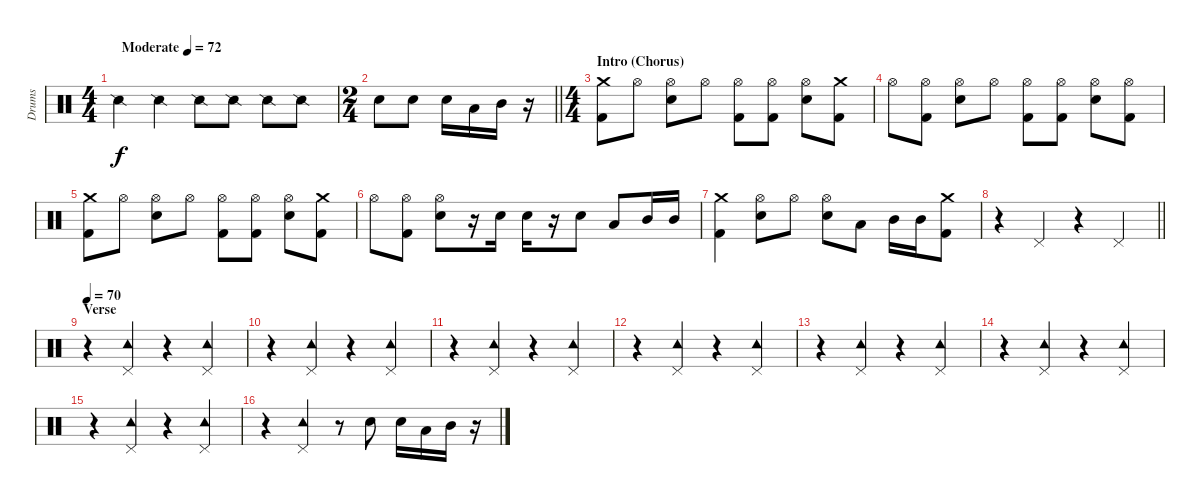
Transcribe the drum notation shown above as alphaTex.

\track ("Drums" "Drums") {instrument percussion}
\staff {score}
\articulation defaults
\ts (4 4)
\tempo (72 "Moderate")
\clef neutral
\ks c "Snare (side stick) 2".4{dy f} "Snare (side stick) 2".4 "Snare (side stick) 2".8 "Snare (side stick) 2".8 "Snare (side stick) 2".8 "Snare (side stick) 2".8
|
\ts (2 4)
\barLineRight lightlight "Snare (hit) 2".8 "Snare (hit) 2".8 "Snare (hit) 2".16 "Low Tom (hit)".16 "Mid Tom (hit)".16
r.16 |
\ts (4 4)
\section ("" "Intro (Chorus)")
("Crash medium (hit)" "Kick (hit) 2").8 "Hi-Hat (open)".8 ("Hi-Hat (open)" "Snare (hit) 2").8 "Hi-Hat (open)".8 ("Hi-Hat (open)" "Kick (hit) 2").8 ("Hi-Hat (open)" "Kick (hit) 2").8 ("Hi-Hat (open)" "Snare (hit) 2").8 ("Crash medium (hit)" "Kick (hit) 2").8 |
"Hi-Hat (open)".8 ("Hi-Hat (open)" "Kick (hit) 2").8 ("Hi-Hat (open)" "Snare (hit) 2").8 "Hi-Hat (open)".8 ("Hi-Hat (open)" "Kick (hit) 2").8 ("Hi-Hat (open)" "Kick (hit) 2").8 ("Hi-Hat (open)" "Snare (hit) 2").8 ("Hi-Hat (open)" "Kick (hit) 2").8 |
("Crash medium (hit)" "Kick (hit) 2").8 "Hi-Hat (open)".8 ("Hi-Hat (open)" "Snare (hit) 2").8 "Hi-Hat (open)".8 ("Hi-Hat (open)" "Kick (hit) 2").8 ("Hi-Hat (open)" "Kick (hit) 2").8 ("Hi-Hat (open)" "Snare (hit) 2").8 ("Crash medium (hit)" "Kick (hit) 2").8 |
"Hi-Hat (open)".8 ("Hi-Hat (open)" "Kick (hit) 2").8 ("Hi-Hat (open)" "Snare (hit) 2").8 r.16 "Snare (hit) 2".16 "Snare (hit) 2".16 r.16 "Snare (hit) 2".8 "Low Tom (hit)".8 "Mid Tom (hit)".16 "Mid Tom (hit)".16 |
("Crash medium (hit)" "Kick (hit) 2").4 ("Hi-Hat (open)" "Snare (hit) 2").8 "Hi-Hat (open)".8 ("Hi-Hat (open)" "Snare (hit) 2").8 "Low Tom (hit)".8 "Mid Tom (hit)".16 "Mid Tom (hit)".16 ("Crash medium (hit)" "Kick (hit) 2").8 |
\barLineRight lightlight
r.4 "Pedal Hi-Hat (hit)".4 r.4 "Pedal Hi-Hat (hit)".4 |
\section ("" "Verse")
\tempo 70
r.4 ("Pedal Hi-Hat (hit)" "Tambourine (hit)").4 r.4 ("Pedal Hi-Hat (hit)" "Tambourine (hit)").4 |
r.4 ("Pedal Hi-Hat (hit)" "Tambourine (hit)").4 r.4 ("Pedal Hi-Hat (hit)" "Tambourine (hit)").4 |
r.4 ("Pedal Hi-Hat (hit)" "Tambourine (hit)").4 r.4 ("Pedal Hi-Hat (hit)" "Tambourine (hit)").4 |
r.4 ("Pedal Hi-Hat (hit)" "Tambourine (hit)").4 r.4 ("Pedal Hi-Hat (hit)" "Tambourine (hit)").4 |
r.4 ("Pedal Hi-Hat (hit)" "Tambourine (hit)").4 r.4 ("Pedal Hi-Hat (hit)" "Tambourine (hit)").4 |
r.4 ("Pedal Hi-Hat (hit)" "Tambourine (hit)").4 r.4 ("Pedal Hi-Hat (hit)" "Tambourine (hit)").4 |
r.4 ("Pedal Hi-Hat (hit)" "Tambourine (hit)").4 r.4 ("Pedal Hi-Hat (hit)" "Tambourine (hit)").4 |
r.4 ("Pedal Hi-Hat (hit)" "Tambourine (hit)").4 r.8 "Snare (hit) 2".8 "Snare (hit) 2".16 "Low Tom (hit)".16 "Mid Tom (hit)".16 r.16
